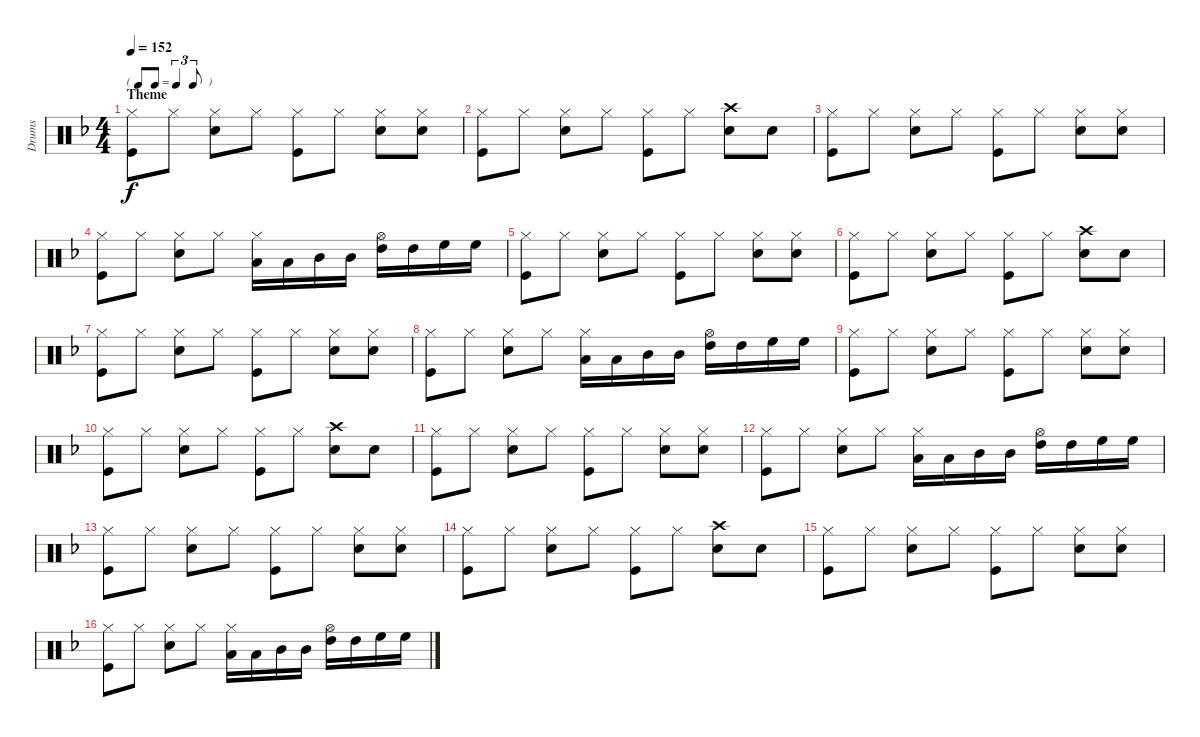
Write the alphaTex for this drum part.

\track ("Drums" "Drums") {instrument percussion}
\staff {score}
\articulation defaults
\ts (4 4)
\tf triplet8th
\section ("" "Theme")
\tempo 152
\clef neutral
\ks f
("Hi-Hat (closed)" "Kick (hit)").8{dy f} "Hi-Hat (closed)".8 ("Hi-Hat (closed)" "Snare (hit) 2").8 "Hi-Hat (closed)".8 ("Hi-Hat (closed)" "Kick (hit)").8 "Hi-Hat (closed)".8 ("Hi-Hat (closed)" "Snare (hit) 2").8 ("Hi-Hat (closed)" "Snare (hit) 2").8 |
("Hi-Hat (closed)" "Kick (hit)").8 "Hi-Hat (closed)".8 ("Hi-Hat (closed)" "Snare (hit) 2").8 "Hi-Hat (closed)".8 ("Hi-Hat (closed)" "Kick (hit)").8 "Hi-Hat (closed)".8 ("Crash high (hit)" "Snare (hit) 2").8 "Snare (hit) 2".8 |
("Hi-Hat (closed)" "Kick (hit)").8 "Hi-Hat (closed)".8 ("Hi-Hat (closed)" "Snare (hit) 2").8 "Hi-Hat (closed)".8 ("Hi-Hat (closed)" "Kick (hit)").8 "Hi-Hat (closed)".8 ("Hi-Hat (closed)" "Snare (hit) 2").8 ("Hi-Hat (closed)" "Snare (hit) 2").8 |
("Hi-Hat (closed)" "Kick (hit)").8 "Hi-Hat (closed)".8 ("Hi-Hat (closed)" "Snare (hit) 2").8 "Hi-Hat (closed)".8 ("Hi-Hat (closed)" "Low Tom (hit)").16 "Low Tom (hit)".16 "Mid Tom (hit)".16 "Mid Tom (hit)".16 ("Hi-Hat (open)" "High Tom (hit)").16 "High Tom (hit)".16 "High Floor Tom (hit)".16 "High Floor Tom (hit)".16 |
("Hi-Hat (closed)" "Kick (hit)").8 "Hi-Hat (closed)".8 ("Hi-Hat (closed)" "Snare (hit) 2").8 "Hi-Hat (closed)".8 ("Hi-Hat (closed)" "Kick (hit)").8 "Hi-Hat (closed)".8 ("Hi-Hat (closed)" "Snare (hit) 2").8 ("Hi-Hat (closed)" "Snare (hit) 2").8 |
("Hi-Hat (closed)" "Kick (hit)").8 "Hi-Hat (closed)".8 ("Hi-Hat (closed)" "Snare (hit) 2").8 "Hi-Hat (closed)".8 ("Hi-Hat (closed)" "Kick (hit)").8 "Hi-Hat (closed)".8 ("Crash high (hit)" "Snare (hit) 2").8 "Snare (hit) 2".8 |
("Hi-Hat (closed)" "Kick (hit)").8 "Hi-Hat (closed)".8 ("Hi-Hat (closed)" "Snare (hit) 2").8 "Hi-Hat (closed)".8 ("Hi-Hat (closed)" "Kick (hit)").8 "Hi-Hat (closed)".8 ("Hi-Hat (closed)" "Snare (hit) 2").8 ("Hi-Hat (closed)" "Snare (hit) 2").8 |
("Hi-Hat (closed)" "Kick (hit)").8 "Hi-Hat (closed)".8 ("Hi-Hat (closed)" "Snare (hit) 2").8 "Hi-Hat (closed)".8 ("Hi-Hat (closed)" "Low Tom (hit)").16 "Low Tom (hit)".16 "Mid Tom (hit)".16 "Mid Tom (hit)".16 ("Hi-Hat (open)" "High Tom (hit)").16 "High Tom (hit)".16 "High Floor Tom (hit)".16 "High Floor Tom (hit)".16 |
("Hi-Hat (closed)" "Kick (hit)").8 "Hi-Hat (closed)".8 ("Hi-Hat (closed)" "Snare (hit) 2").8 "Hi-Hat (closed)".8 ("Hi-Hat (closed)" "Kick (hit)").8 "Hi-Hat (closed)".8 ("Hi-Hat (closed)" "Snare (hit) 2").8 ("Hi-Hat (closed)" "Snare (hit) 2").8 |
("Hi-Hat (closed)" "Kick (hit)").8 "Hi-Hat (closed)".8 ("Hi-Hat (closed)" "Snare (hit) 2").8 "Hi-Hat (closed)".8 ("Hi-Hat (closed)" "Kick (hit)").8 "Hi-Hat (closed)".8 ("Crash high (hit)" "Snare (hit) 2").8 "Snare (hit) 2".8 |
("Hi-Hat (closed)" "Kick (hit)").8 "Hi-Hat (closed)".8 ("Hi-Hat (closed)" "Snare (hit) 2").8 "Hi-Hat (closed)".8 ("Hi-Hat (closed)" "Kick (hit)").8 "Hi-Hat (closed)".8 ("Hi-Hat (closed)" "Snare (hit) 2").8 ("Hi-Hat (closed)" "Snare (hit) 2").8 |
("Hi-Hat (closed)" "Kick (hit)").8 "Hi-Hat (closed)".8 ("Hi-Hat (closed)" "Snare (hit) 2").8 "Hi-Hat (closed)".8 ("Hi-Hat (closed)" "Low Tom (hit)").16 "Low Tom (hit)".16 "Mid Tom (hit)".16 "Mid Tom (hit)".16 ("Hi-Hat (open)" "High Tom (hit)").16 "High Tom (hit)".16 "High Floor Tom (hit)".16 "High Floor Tom (hit)".16 |
("Hi-Hat (closed)" "Kick (hit)").8 "Hi-Hat (closed)".8 ("Hi-Hat (closed)" "Snare (hit) 2").8 "Hi-Hat (closed)".8 ("Hi-Hat (closed)" "Kick (hit)").8 "Hi-Hat (closed)".8 ("Hi-Hat (closed)" "Snare (hit) 2").8 ("Hi-Hat (closed)" "Snare (hit) 2").8 |
("Hi-Hat (closed)" "Kick (hit)").8 "Hi-Hat (closed)".8 ("Hi-Hat (closed)" "Snare (hit) 2").8 "Hi-Hat (closed)".8 ("Hi-Hat (closed)" "Kick (hit)").8 "Hi-Hat (closed)".8 ("Crash high (hit)" "Snare (hit) 2").8 "Snare (hit) 2".8 |
("Hi-Hat (closed)" "Kick (hit)").8 "Hi-Hat (closed)".8 ("Hi-Hat (closed)" "Snare (hit) 2").8 "Hi-Hat (closed)".8 ("Hi-Hat (closed)" "Kick (hit)").8 "Hi-Hat (closed)".8 ("Hi-Hat (closed)" "Snare (hit) 2").8 ("Hi-Hat (closed)" "Snare (hit) 2").8 |
("Hi-Hat (closed)" "Kick (hit)").8 "Hi-Hat (closed)".8 ("Hi-Hat (closed)" "Snare (hit) 2").8 "Hi-Hat (closed)".8 ("Hi-Hat (closed)" "Low Tom (hit)").16 "Low Tom (hit)".16 "Mid Tom (hit)".16 "Mid Tom (hit)".16 ("Hi-Hat (open)" "High Tom (hit)").16 "High Tom (hit)".16 "High Floor Tom (hit)".16 "High Floor Tom (hit)".16
